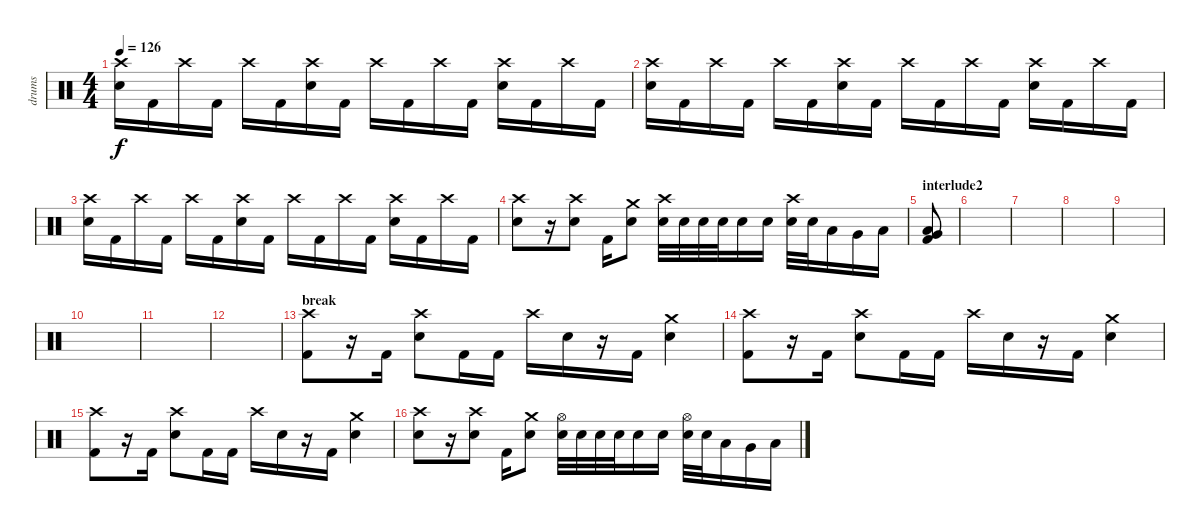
\track ("drums" "drums") {instrument percussion}
\staff {score}
\articulation defaults
\ts (4 4)
\tempo 126
\clef neutral
\ks c
("Crash high (hit)" "Electric Snare (hit)").16{dy f} "Kick (hit) 2".16 "Crash high (hit)".16 "Kick (hit) 2".16 "Crash high (hit)".16 "Kick (hit) 2".16 ("Crash high (hit)" "Electric Snare (hit)").16 "Kick (hit) 2".16 "Crash high (hit)".16 "Kick (hit) 2".16 "Crash high (hit)".16 "Kick (hit) 2".16 ("Crash high (hit)" "Electric Snare (hit)").16 "Kick (hit) 2".16 "Crash high (hit)".16 "Kick (hit) 2".16 |
("Crash high (hit)" "Electric Snare (hit)").16 "Kick (hit) 2".16 "Crash high (hit)".16 "Kick (hit) 2".16 "Crash high (hit)".16 "Kick (hit) 2".16 ("Crash high (hit)" "Electric Snare (hit)").16 "Kick (hit) 2".16 "Crash high (hit)".16 "Kick (hit) 2".16 "Crash high (hit)".16 "Kick (hit) 2".16 ("Crash high (hit)" "Electric Snare (hit)").16 "Kick (hit) 2".16 "Crash high (hit)".16 "Kick (hit) 2".16 |
("Crash high (hit)" "Electric Snare (hit)").16 "Kick (hit) 2".16 "Crash high (hit)".16 "Kick (hit) 2".16 "Crash high (hit)".16 "Kick (hit) 2".16 ("Crash high (hit)" "Electric Snare (hit)").16 "Kick (hit) 2".16 "Crash high (hit)".16 "Kick (hit) 2".16 "Crash high (hit)".16 "Kick (hit) 2".16 ("Crash high (hit)" "Electric Snare (hit)").16 "Kick (hit) 2".16 "Crash high (hit)".16 "Kick (hit) 2".16 |
("Crash high (hit)" "Electric Snare (hit)").8 r.16 ("Crash high (hit)" "Electric Snare (hit)").8 "Kick (hit) 2".16 ("Crash medium (hit)" "Electric Snare (hit)").8 ("Crash high (hit)" "Electric Snare (hit)").32 "Electric Snare (hit)".32 "Electric Snare (hit)".32 "Electric Snare (hit)".32 "Electric Snare (hit)".16 "Electric Snare (hit)".16 ("Crash high (hit)" "Electric Snare (hit)").32 "Electric Snare (hit)".32 "Low Tom (hit)".16 "Very Low Tom (hit)".16 "Low Floor Tom (hit)".16 |
\section ("" "interlude2")
("Very Low Tom (hit)" "Low Floor Tom (hit)" "Kick (hit) 2").8 |
|
|
|
|
|
|
|
\section ("" "break")
("Crash high (hit)" "Kick (hit) 2").8 r.16 "Kick (hit) 2".16 ("Crash high (hit)" "Electric Snare (hit)").8 "Kick (hit) 2".16 "Kick (hit) 2".16 "Crash high (hit)".16 "Electric Snare (hit)".16 r.16 "Kick (hit) 2".16 ("Crash medium (hit)" "Electric Snare (hit)").4 |
("Crash high (hit)" "Kick (hit) 2").8 r.16 "Kick (hit) 2".16 ("Crash high (hit)" "Electric Snare (hit)").8 "Kick (hit) 2".16 "Kick (hit) 2".16 "Crash high (hit)".16 "Electric Snare (hit)".16 r.16 "Kick (hit) 2".16 ("Crash medium (hit)" "Electric Snare (hit)").4 |
("Crash high (hit)" "Kick (hit) 2").8 r.16 "Kick (hit) 2".16 ("Crash high (hit)" "Electric Snare (hit)").8 "Kick (hit) 2".16 "Kick (hit) 2".16 "Crash high (hit)".16 "Electric Snare (hit)".16 r.16 "Kick (hit) 2".16 ("Crash medium (hit)" "Electric Snare (hit)").4 |
("Crash high (hit)" "Electric Snare (hit)").8 r.16 ("Crash high (hit)" "Electric Snare (hit)").8 "Kick (hit) 2".16 ("Crash medium (hit)" "Electric Snare (hit)").8 ("Hi-Hat (open)" "Electric Snare (hit)").32 "Electric Snare (hit)".32 "Electric Snare (hit)".32 "Electric Snare (hit)".32 "Electric Snare (hit)".16 "Electric Snare (hit)".16 ("Hi-Hat (open)" "Electric Snare (hit)").32 "Electric Snare (hit)".32 "Low Tom (hit)".16 "Very Low Tom (hit)".16 "Low Floor Tom (hit)".16
